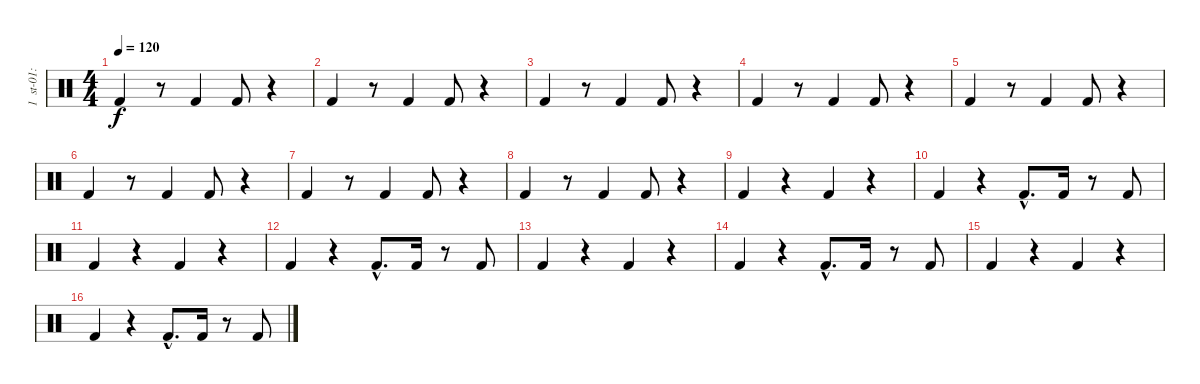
\track (" 1  st-01:bassdrum2" " 1  st-01:") {instrument percussion}
\staff {score}
\articulation defaults
\ts (4 4)
\tempo 120
\clef neutral
\ks c "Kick (hit) 2".4{dy f}
r.8 "Kick (hit) 2".4 "Kick (hit) 2".8 r.4 |
"Kick (hit) 2".4 r.8 "Kick (hit) 2".4 "Kick (hit) 2".8 r.4 |
"Kick (hit) 2".4 r.8 "Kick (hit) 2".4 "Kick (hit) 2".8 r.4 |
"Kick (hit) 2".4 r.8 "Kick (hit) 2".4 "Kick (hit) 2".8 r.4 |
"Kick (hit) 2".4 r.8 "Kick (hit) 2".4 "Kick (hit) 2".8 r.4 |
"Kick (hit) 2".4 r.8 "Kick (hit) 2".4 "Kick (hit) 2".8 r.4 |
"Kick (hit) 2".4 r.8 "Kick (hit) 2".4 "Kick (hit) 2".8 r.4 |
"Kick (hit) 2".4 r.8 "Kick (hit) 2".4 "Kick (hit) 2".8 r.4 |
"Kick (hit) 2".4 r.4 "Kick (hit) 2".4 r.4 |
"Kick (hit) 2".4 r.4 "Kick (hit) 2"{hac}.8{d} "Kick (hit) 2".16 r.8 "Kick (hit) 2".8 |
"Kick (hit) 2".4 r.4 "Kick (hit) 2".4 r.4 |
"Kick (hit) 2".4 r.4 "Kick (hit) 2"{hac}.8{d} "Kick (hit) 2".16 r.8 "Kick (hit) 2".8 |
"Kick (hit) 2".4 r.4 "Kick (hit) 2".4 r.4 |
"Kick (hit) 2".4 r.4 "Kick (hit) 2"{hac}.8{d} "Kick (hit) 2".16 r.8 "Kick (hit) 2".8 |
"Kick (hit) 2".4 r.4 "Kick (hit) 2".4 r.4 |
"Kick (hit) 2".4 r.4 "Kick (hit) 2"{hac}.8{d} "Kick (hit) 2".16 r.8 "Kick (hit) 2".8
